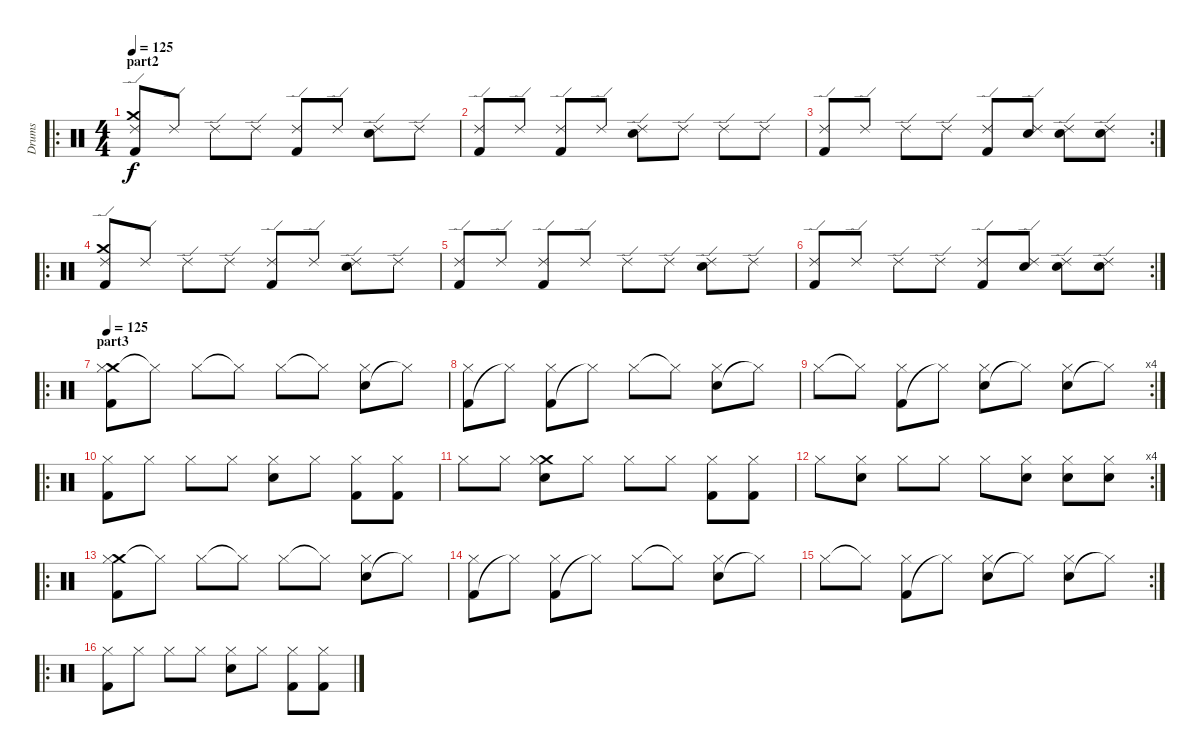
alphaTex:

\track ("Drums" "Drums") {instrument percussion}
\staff {score}
\articulation defaults
\ro
\ts (4 4)
\section ("" "part2")
\tempo 125
\clef neutral
\ks c
("Kick (hit) 2" "Crash medium (hit)" "Ride (edge) 2").8{dy f} "Ride (edge) 2".8 "Ride (edge) 2".8 "Ride (edge) 2".8 ("Kick (hit) 2" "Ride (edge) 2").8 "Ride (edge) 2".8 ("Snare (hit) 2" "Ride (edge) 2").8 "Ride (edge) 2".8 |
("Kick (hit) 2" "Ride (edge) 2").8 "Ride (edge) 2".8 ("Kick (hit) 2" "Ride (edge) 2").8 "Ride (edge) 2".8 ("Snare (hit) 2" "Ride (edge) 2").8 "Ride (edge) 2".8 "Ride (edge) 2".8 "Ride (edge) 2".8 |
\rc 2
("Kick (hit) 2" "Ride (edge) 2").8 "Ride (edge) 2".8 "Ride (edge) 2".8 "Ride (edge) 2".8 ("Kick (hit) 2" "Ride (edge) 2").8 ("Snare (hit) 2" "Ride (edge) 2").8 ("Snare (hit) 2" "Ride (edge) 2").8 ("Snare (hit) 2" "Ride (edge) 2").8 |
\ro
("Kick (hit) 2" "Crash medium (hit)" "Ride (edge) 2").8 "Ride (edge) 2".8 "Ride (edge) 2".8 "Ride (edge) 2".8 ("Kick (hit) 2" "Ride (edge) 2").8 "Ride (edge) 2".8 ("Snare (hit) 2" "Ride (edge) 2").8 "Ride (edge) 2".8 |
("Kick (hit) 2" "Ride (edge) 2").8 "Ride (edge) 2".8 ("Kick (hit) 2" "Ride (edge) 2").8 "Ride (edge) 2".8 "Ride (edge) 2".8 "Ride (edge) 2".8 ("Snare (hit) 2" "Ride (edge) 2").8 "Ride (edge) 2".8 |
\rc 2
("Kick (hit) 2" "Ride (edge) 2").8 "Ride (edge) 2".8 "Ride (edge) 2".8 "Ride (edge) 2".8 ("Kick (hit) 2" "Ride (edge) 2").8 ("Snare (hit) 2" "Ride (edge) 2").8 ("Snare (hit) 2" "Ride (edge) 2").8 ("Snare (hit) 2" "Ride (edge) 2").8 |
\ro
\section ("" "part3")
\tempo 125
("Crash medium (hit)" "Kick (hit) 2" "Hi-Hat (closed)").8 "Hi-Hat (closed)"{t}.8 "Hi-Hat (closed)".8 "Hi-Hat (closed)"{t}.8 "Hi-Hat (closed)".8 "Hi-Hat (closed)"{t}.8 ("Snare (hit) 2" "Hi-Hat (closed)").8 "Hi-Hat (closed)"{t}.8 |
("Kick (hit) 2" "Hi-Hat (closed)").8 "Hi-Hat (closed)"{t}.8 ("Kick (hit) 2" "Hi-Hat (closed)").8 "Hi-Hat (closed)"{t}.8 "Hi-Hat (closed)".8 "Hi-Hat (closed)"{t}.8 ("Snare (hit) 2" "Hi-Hat (closed)").8 "Hi-Hat (closed)"{t}.8 |
\rc 4 "Hi-Hat (closed)".8 "Hi-Hat (closed)"{t}.8
("Kick (hit) 2" "Hi-Hat (closed)").8 "Hi-Hat (closed)"{t}.8 ("Snare (hit) 2" "Hi-Hat (closed)").8 "Hi-Hat (closed)"{t}.8 ("Snare (hit) 2" "Hi-Hat (closed)").8 "Hi-Hat (closed)"{t}.8 |
\ro
("Kick (hit) 2" "Hi-Hat (closed)").8 "Hi-Hat (closed)".8 "Hi-Hat (closed)".8 "Hi-Hat (closed)".8 ("Snare (hit) 2" "Hi-Hat (closed)").8 "Hi-Hat (closed)".8 ("Kick (hit) 2" "Hi-Hat (closed)").8 ("Kick (hit) 2" "Hi-Hat (closed)").8 |
"Hi-Hat (closed)".8 "Hi-Hat (closed)".8 ("Crash medium (hit)" "Snare (hit) 2" "Hi-Hat (closed)").8 "Hi-Hat (closed)".8 "Hi-Hat (closed)".8 "Hi-Hat (closed)".8 ("Kick (hit) 2" "Hi-Hat (closed)").8 ("Kick (hit) 2" "Hi-Hat (closed)").8 |
\rc 4 "Hi-Hat (closed)".8
("Snare (hit) 2" "Hi-Hat (closed)").8 "Hi-Hat (closed)".8 "Hi-Hat (closed)".8 "Hi-Hat (closed)".8 ("Snare (hit) 2" "Hi-Hat (closed)").8 ("Snare (hit) 2" "Hi-Hat (closed)").8 ("Snare (hit) 2" "Hi-Hat (closed)").8 |
\ro
("Crash medium (hit)" "Kick (hit) 2" "Hi-Hat (closed)").8 "Hi-Hat (closed)"{t}.8 "Hi-Hat (closed)".8 "Hi-Hat (closed)"{t}.8 "Hi-Hat (closed)".8 "Hi-Hat (closed)"{t}.8 ("Snare (hit) 2" "Hi-Hat (closed)").8 "Hi-Hat (closed)"{t}.8 |
("Kick (hit) 2" "Hi-Hat (closed)").8 "Hi-Hat (closed)"{t}.8 ("Kick (hit) 2" "Hi-Hat (closed)").8 "Hi-Hat (closed)"{t}.8 "Hi-Hat (closed)".8 "Hi-Hat (closed)"{t}.8 ("Snare (hit) 2" "Hi-Hat (closed)").8 "Hi-Hat (closed)"{t}.8 |
\rc 2 "Hi-Hat (closed)".8 "Hi-Hat (closed)"{t}.8
("Kick (hit) 2" "Hi-Hat (closed)").8 "Hi-Hat (closed)"{t}.8 ("Snare (hit) 2" "Hi-Hat (closed)").8 "Hi-Hat (closed)"{t}.8 ("Snare (hit) 2" "Hi-Hat (closed)").8 "Hi-Hat (closed)"{t}.8 |
\ro
("Kick (hit) 2" "Hi-Hat (closed)").8 "Hi-Hat (closed)".8 "Hi-Hat (closed)".8 "Hi-Hat (closed)".8 ("Snare (hit) 2" "Hi-Hat (closed)").8 "Hi-Hat (closed)".8 ("Kick (hit) 2" "Hi-Hat (closed)").8 ("Kick (hit) 2" "Hi-Hat (closed)").8
